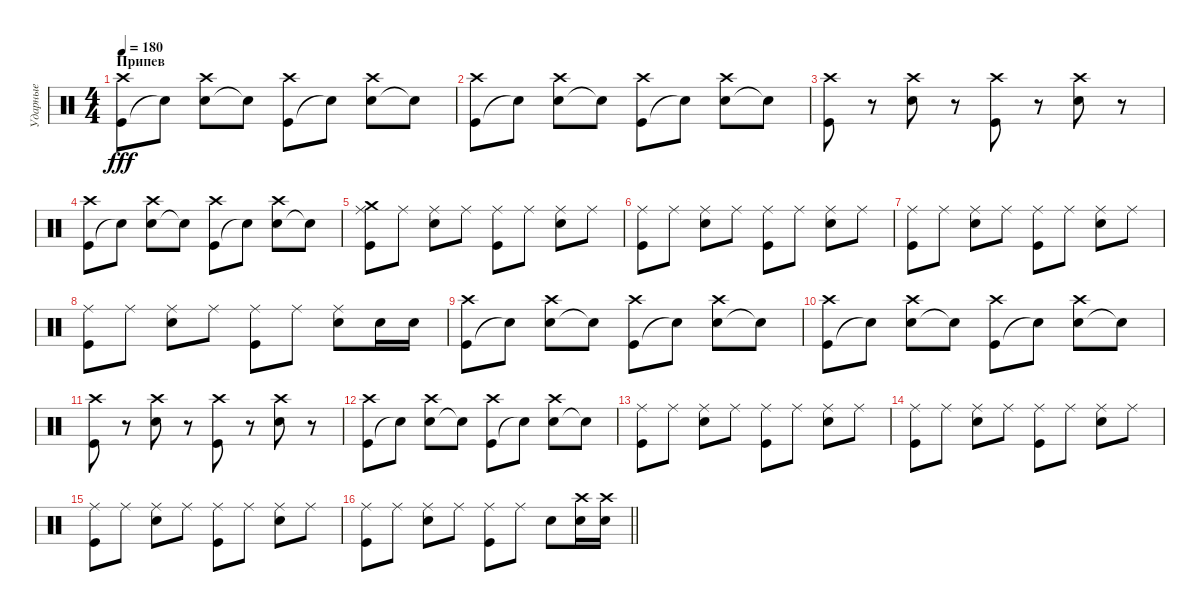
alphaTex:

\track ("Ударные" "Ударные") {instrument percussion}
\staff {score}
\articulation defaults
\ts (4 4)
\section ("" "Припев")
\tempo 180
\clef neutral
\ks c
("Kick (hit)" "Crash high (hit)").8{dy fff} "Snare (hit)"{t}.8 ("Electric Snare (hit)" "Crash high (hit)").8 "Snare (hit)"{t}.8 ("Kick (hit)" "Crash high (hit)").8 "Snare (hit)"{t}.8 ("Electric Snare (hit)" "Crash high (hit)").8 "Snare (hit)"{t}.8 |
("Kick (hit)" "Crash high (hit)").8 "Snare (hit)"{t}.8 ("Electric Snare (hit)" "Crash high (hit)").8 "Snare (hit)"{t}.8 ("Kick (hit)" "Crash high (hit)").8 "Snare (hit)"{t}.8 ("Electric Snare (hit)" "Crash high (hit)").8 "Snare (hit)"{t}.8 |
("Kick (hit)" "Crash high (hit)").8 r.8 ("Electric Snare (hit)" "Crash high (hit)").8 r.8 ("Kick (hit)" "Crash high (hit)").8 r.8 ("Electric Snare (hit)" "Crash high (hit)").8 r.8 |
("Kick (hit)" "Crash high (hit)").8 "Snare (hit)"{t}.8 ("Electric Snare (hit)" "Crash high (hit)").8 "Snare (hit)"{t}.8 ("Kick (hit)" "Crash high (hit)").8 "Snare (hit)"{t}.8 ("Electric Snare (hit)" "Crash high (hit)").8 "Snare (hit)"{t}.8 |
("Kick (hit)" "Ride (middle)" "Crash medium (hit)").8 "Ride (middle)".8 ("Electric Snare (hit)" "Ride (middle)").8 "Ride (middle)".8 ("Kick (hit)" "Ride (middle)").8 "Ride (middle)".8 ("Electric Snare (hit)" "Ride (middle)").8 "Ride (middle)".8 |
("Kick (hit)" "Ride (middle)").8 "Ride (middle)".8 ("Electric Snare (hit)" "Ride (middle)").8 "Ride (middle)".8 ("Kick (hit)" "Ride (middle)").8 "Ride (middle)".8 ("Electric Snare (hit)" "Ride (middle)").8 "Ride (middle)".8 |
("Kick (hit)" "Ride (middle)").8 "Ride (middle)".8 ("Electric Snare (hit)" "Ride (middle)").8 "Ride (middle)".8 ("Kick (hit)" "Ride (middle)").8 "Ride (middle)".8 ("Electric Snare (hit)" "Ride (middle)").8 "Ride (middle)".8 |
("Kick (hit)" "Ride (middle)").8 "Ride (middle)".8 ("Electric Snare (hit)" "Ride (middle)").8 "Ride (middle)".8 ("Kick (hit)" "Ride (middle)").8 "Ride (middle)".8 ("Electric Snare (hit)" "Ride (middle)").8 "Electric Snare (hit)".16 "Electric Snare (hit)".16 |
("Kick (hit)" "Crash high (hit)").8 "Snare (hit)"{t}.8 ("Electric Snare (hit)" "Crash high (hit)").8 "Snare (hit)"{t}.8 ("Kick (hit)" "Crash high (hit)").8 "Snare (hit)"{t}.8 ("Electric Snare (hit)" "Crash high (hit)").8 "Snare (hit)"{t}.8 |
("Kick (hit)" "Crash high (hit)").8 "Snare (hit)"{t}.8 ("Electric Snare (hit)" "Crash high (hit)").8 "Snare (hit)"{t}.8 ("Kick (hit)" "Crash high (hit)").8 "Snare (hit)"{t}.8 ("Electric Snare (hit)" "Crash high (hit)").8 "Snare (hit)"{t}.8 |
("Kick (hit)" "Crash high (hit)").8 r.8 ("Electric Snare (hit)" "Crash high (hit)").8 r.8 ("Kick (hit)" "Crash high (hit)").8 r.8 ("Electric Snare (hit)" "Crash high (hit)").8 r.8 |
("Kick (hit)" "Crash high (hit)").8 "Snare (hit)"{t}.8 ("Electric Snare (hit)" "Crash high (hit)").8 "Snare (hit)"{t}.8 ("Kick (hit)" "Crash high (hit)").8 "Snare (hit)"{t}.8 ("Electric Snare (hit)" "Crash high (hit)").8 "Snare (hit)"{t}.8 |
("Kick (hit)" "Ride (middle)").8 "Ride (middle)".8 ("Electric Snare (hit)" "Ride (middle)").8 "Ride (middle)".8 ("Kick (hit)" "Ride (middle)").8 "Ride (middle)".8 ("Electric Snare (hit)" "Ride (middle)").8 "Ride (middle)".8 |
("Kick (hit)" "Ride (middle)").8 "Ride (middle)".8 ("Electric Snare (hit)" "Ride (middle)").8 "Ride (middle)".8 ("Kick (hit)" "Ride (middle)").8 "Ride (middle)".8 ("Electric Snare (hit)" "Ride (middle)").8 "Ride (middle)".8 |
("Kick (hit)" "Ride (middle)").8 "Ride (middle)".8 ("Electric Snare (hit)" "Ride (middle)").8 "Ride (middle)".8 ("Kick (hit)" "Ride (middle)").8 "Ride (middle)".8 ("Electric Snare (hit)" "Ride (middle)").8 "Ride (middle)".8 |
\barLineRight lightlight
("Kick (hit)" "Ride (middle)").8 "Ride (middle)".8 ("Electric Snare (hit)" "Ride (middle)").8 "Ride (middle)".8 ("Kick (hit)" "Ride (middle)").8 "Ride (middle)".8 "Electric Snare (hit)".8 ("Electric Snare (hit)" "Crash high (hit)").16 ("Electric Snare (hit)" "Crash high (hit)").16
